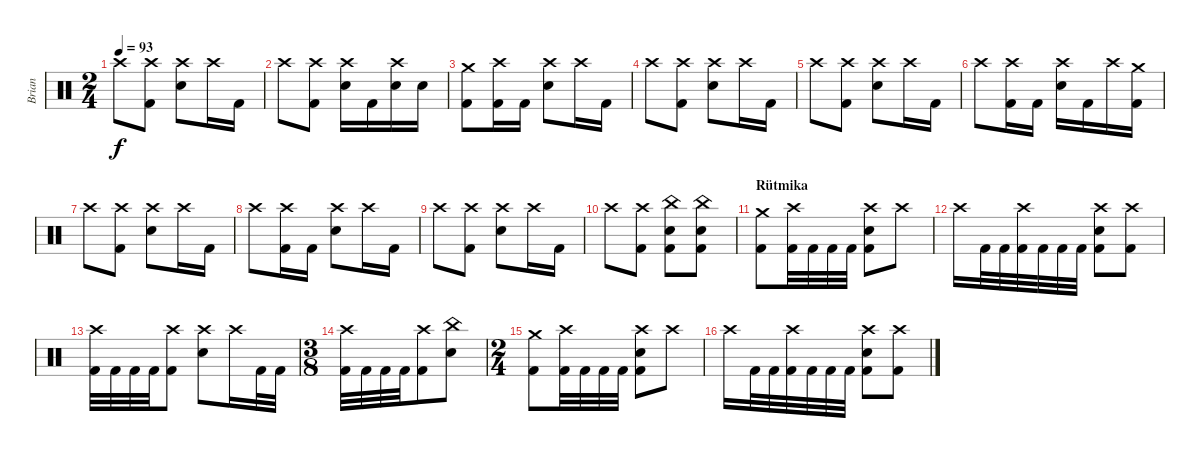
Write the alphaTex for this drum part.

\track ("Brian" "Brian") {instrument percussion}
\staff {score}
\articulation defaults
\ts (2 4)
\tempo 93
\clef neutral
\ks c "Crash high (hit)".8{dy f}
("Crash high (hit)" "Kick (hit) 2").8 ("Crash high (hit)" "Electric Snare (hit)").8 "Crash high (hit)".16 "Kick (hit) 2".16 |
"Crash high (hit)".8 ("Crash high (hit)" "Kick (hit) 2").8 ("Crash high (hit)" "Electric Snare (hit)").16 "Kick (hit) 2".16 ("Crash high (hit)" "Electric Snare (hit)").16 "Electric Snare (hit)".16 |
("Crash medium (hit)" "Kick (hit) 2").8 ("Crash high (hit)" "Kick (hit) 2").16 "Kick (hit) 2".16 ("Crash high (hit)" "Electric Snare (hit)").8 "Crash high (hit)".16 "Kick (hit) 2".16 |
"Crash high (hit)".8 ("Crash high (hit)" "Kick (hit) 2").8 ("Crash high (hit)" "Electric Snare (hit)").8 "Crash high (hit)".16 "Kick (hit) 2".16 |
"Crash high (hit)".8 ("Crash high (hit)" "Kick (hit) 2").8 ("Crash high (hit)" "Electric Snare (hit)").8 "Crash high (hit)".16 "Kick (hit) 2".16 |
"Crash high (hit)".8 ("Crash high (hit)" "Kick (hit) 2").16 "Kick (hit) 2".16 ("Crash high (hit)" "Electric Snare (hit)").16 "Kick (hit) 2".16 "Crash high (hit)".16 ("Crash medium (hit)" "Kick (hit) 2").16 |
"Crash high (hit)".8 ("Crash high (hit)" "Kick (hit) 2").8 ("Crash high (hit)" "Electric Snare (hit)").8 "Crash high (hit)".16 "Kick (hit) 2".16 |
"Crash high (hit)".8 ("Crash high (hit)" "Kick (hit) 2").16 "Kick (hit) 2".16 ("Crash high (hit)" "Electric Snare (hit)").8 "Crash high (hit)".16 "Kick (hit) 2".16 |
"Crash high (hit)".8 ("Crash high (hit)" "Kick (hit) 2").8 ("Crash high (hit)" "Electric Snare (hit)").8 "Crash high (hit)".16 "Kick (hit) 2".16 |
"Crash high (hit)".8 ("Crash high (hit)" "Kick (hit) 2").8 ("China (hit)" "Electric Snare (hit)" "Kick (hit) 2").8 ("China (hit)" "Electric Snare (hit)" "Kick (hit) 2").8 |
\section ("" "Rütmika")
("Crash medium (hit)" "Kick (hit) 2").8 ("Crash high (hit)" "Kick (hit) 2").32 "Kick (hit) 2".32 "Kick (hit) 2".32 "Kick (hit) 2".32 ("Crash high (hit)" "Electric Snare (hit)" "Kick (hit) 2").8 "Crash high (hit)".8 |
"Crash high (hit)".16 "Kick (hit) 2".32 "Kick (hit) 2".32 ("Crash high (hit)" "Kick (hit) 2").32 "Kick (hit) 2".32 "Kick (hit) 2".32 "Kick (hit) 2".32 ("Crash high (hit)" "Electric Snare (hit)" "Kick (hit) 2").8 ("Crash high (hit)" "Kick (hit) 2").8 |
("Crash high (hit)" "Kick (hit) 2").32 "Kick (hit) 2".32 "Kick (hit) 2".32 "Kick (hit) 2".32 ("Crash high (hit)" "Kick (hit) 2").8 ("Crash high (hit)" "Electric Snare (hit)").8 "Crash high (hit)".16 "Kick (hit) 2".32 "Kick (hit) 2".32 |
\ts (3 8)
("Crash high (hit)" "Kick (hit) 2").32 "Kick (hit) 2".32 "Kick (hit) 2".32 "Kick (hit) 2".32 ("Crash high (hit)" "Kick (hit) 2").8 ("China (hit)" "Electric Snare (hit)").8 |
\ts (2 4)
("Crash medium (hit)" "Kick (hit) 2").8 ("Crash high (hit)" "Kick (hit) 2").32 "Kick (hit) 2".32 "Kick (hit) 2".32 "Kick (hit) 2".32 ("Crash high (hit)" "Electric Snare (hit)" "Kick (hit) 2").8 "Crash high (hit)".8 |
"Crash high (hit)".16 "Kick (hit) 2".32 "Kick (hit) 2".32 ("Crash high (hit)" "Kick (hit) 2").32 "Kick (hit) 2".32 "Kick (hit) 2".32 "Kick (hit) 2".32 ("Crash high (hit)" "Electric Snare (hit)" "Kick (hit) 2").8 ("Crash high (hit)" "Kick (hit) 2").8
